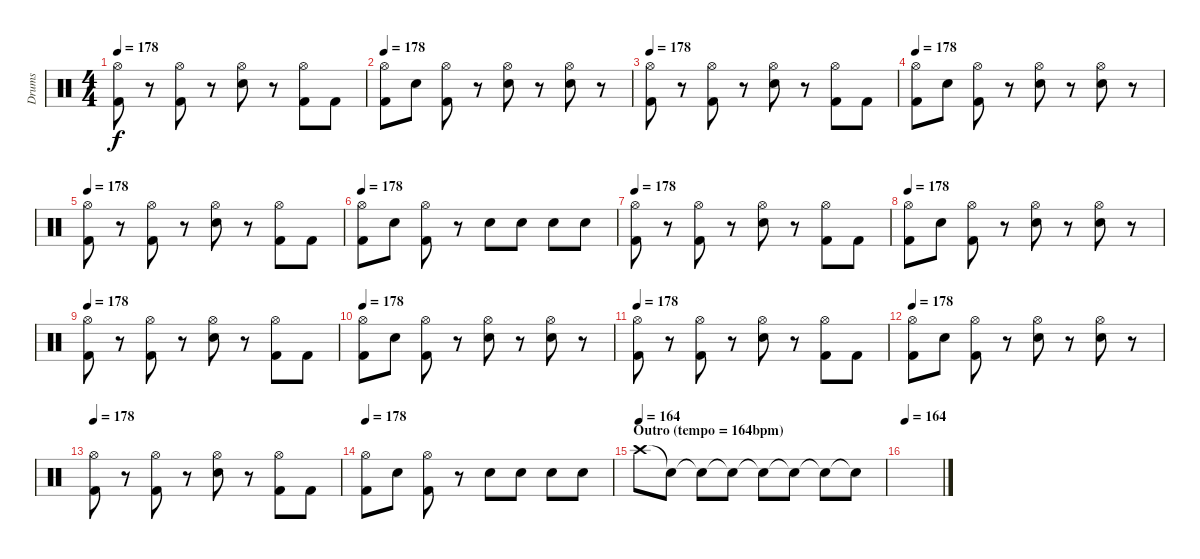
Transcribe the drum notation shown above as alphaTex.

\track ("Drums" "Drums") {instrument percussion}
\staff {score}
\articulation defaults
\ts (4 4)
\tempo 178
\clef neutral
\ks c
("Hi-Hat (open)" "Kick (hit) 2").8{dy f} r.8 ("Hi-Hat (open)" "Kick (hit) 2").8 r.8 ("Hi-Hat (open)" "Snare (hit) 2").8 r.8 ("Hi-Hat (open)" "Kick (hit) 2").8 "Kick (hit) 2".8 |
\tempo 178
("Hi-Hat (open)" "Kick (hit) 2").8 "Snare (hit) 2".8 ("Hi-Hat (open)" "Kick (hit) 2").8 r.8 ("Hi-Hat (open)" "Snare (hit) 2").8 r.8 ("Hi-Hat (open)" "Snare (hit) 2").8 r.8 |
\tempo 178
("Hi-Hat (open)" "Kick (hit) 2").8 r.8 ("Hi-Hat (open)" "Kick (hit) 2").8 r.8 ("Hi-Hat (open)" "Snare (hit) 2").8 r.8 ("Hi-Hat (open)" "Kick (hit) 2").8 "Kick (hit) 2".8 |
\tempo 178
("Hi-Hat (open)" "Kick (hit) 2").8 "Snare (hit) 2".8 ("Hi-Hat (open)" "Kick (hit) 2").8 r.8 ("Hi-Hat (open)" "Snare (hit) 2").8 r.8 ("Hi-Hat (open)" "Snare (hit) 2").8 r.8 |
\tempo 178
("Hi-Hat (open)" "Kick (hit) 2").8 r.8 ("Hi-Hat (open)" "Kick (hit) 2").8 r.8 ("Hi-Hat (open)" "Snare (hit) 2").8 r.8 ("Hi-Hat (open)" "Kick (hit) 2").8 "Kick (hit) 2".8 |
\tempo 178
("Hi-Hat (open)" "Kick (hit) 2").8 "Snare (hit) 2".8 ("Hi-Hat (open)" "Kick (hit) 2").8 r.8 "Snare (hit) 2".8 "Snare (hit) 2".8 "Snare (hit) 2".8 "Snare (hit) 2".8 |
\tempo 178
("Hi-Hat (open)" "Kick (hit) 2").8 r.8 ("Hi-Hat (open)" "Kick (hit) 2").8 r.8 ("Hi-Hat (open)" "Snare (hit) 2").8 r.8 ("Hi-Hat (open)" "Kick (hit) 2").8 "Kick (hit) 2".8 |
\tempo 178
("Hi-Hat (open)" "Kick (hit) 2").8 "Snare (hit) 2".8 ("Hi-Hat (open)" "Kick (hit) 2").8 r.8 ("Hi-Hat (open)" "Snare (hit) 2").8 r.8 ("Hi-Hat (open)" "Snare (hit) 2").8 r.8 |
\tempo 178
("Hi-Hat (open)" "Kick (hit) 2").8 r.8 ("Hi-Hat (open)" "Kick (hit) 2").8 r.8 ("Hi-Hat (open)" "Snare (hit) 2").8 r.8 ("Hi-Hat (open)" "Kick (hit) 2").8 "Kick (hit) 2".8 |
\tempo 178
("Hi-Hat (open)" "Kick (hit) 2").8 "Snare (hit) 2".8 ("Hi-Hat (open)" "Kick (hit) 2").8 r.8 ("Hi-Hat (open)" "Snare (hit) 2").8 r.8 ("Hi-Hat (open)" "Snare (hit) 2").8 r.8 |
\tempo 178
("Hi-Hat (open)" "Kick (hit) 2").8 r.8 ("Hi-Hat (open)" "Kick (hit) 2").8 r.8 ("Hi-Hat (open)" "Snare (hit) 2").8 r.8 ("Hi-Hat (open)" "Kick (hit) 2").8 "Kick (hit) 2".8 |
\tempo 178
("Hi-Hat (open)" "Kick (hit) 2").8 "Snare (hit) 2".8 ("Hi-Hat (open)" "Kick (hit) 2").8 r.8 ("Hi-Hat (open)" "Snare (hit) 2").8 r.8 ("Hi-Hat (open)" "Snare (hit) 2").8 r.8 |
\tempo 178
("Hi-Hat (open)" "Kick (hit) 2").8 r.8 ("Hi-Hat (open)" "Kick (hit) 2").8 r.8 ("Hi-Hat (open)" "Snare (hit) 2").8 r.8 ("Hi-Hat (open)" "Kick (hit) 2").8 "Kick (hit) 2".8 |
\tempo 178
("Hi-Hat (open)" "Kick (hit) 2").8 "Snare (hit) 2".8 ("Hi-Hat (open)" "Kick (hit) 2").8 r.8 "Snare (hit) 2".8 "Snare (hit) 2".8 "Snare (hit) 2".8 "Snare (hit) 2".8 |
\section ("" "Outro (tempo = 164bpm)")
\tempo (164)
"Crash high (hit)".8 "Snare (hit)"{t}.8 "Snare (hit)"{t}.8 "Snare (hit)"{t}.8 "Snare (hit)"{t}.8 "Snare (hit)"{t}.8 "Snare (hit)"{t}.8 "Snare (hit)"{t}.8 |
\tempo 164
